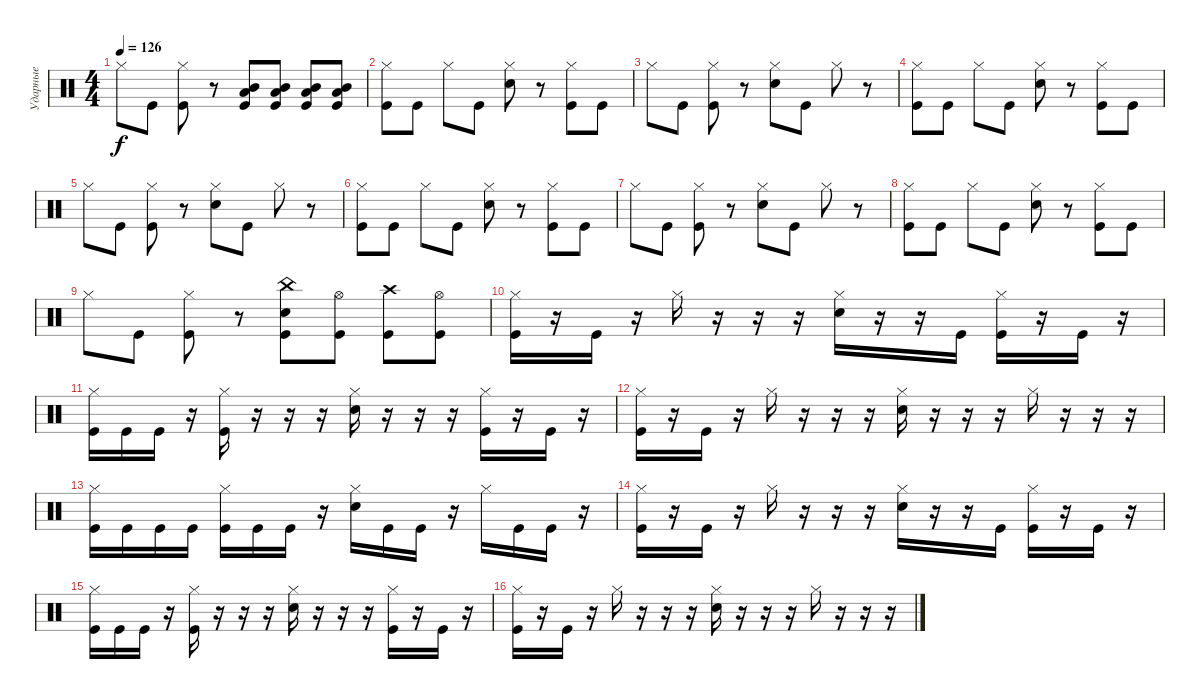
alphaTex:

\track ("Ударные" "Ударные") {instrument percussion}
\staff {score}
\articulation defaults
\ts (4 4)
\tempo 126
\clef neutral
\ks c "Hi-Hat (closed)".8{dy f} "Kick (hit)".8
("Hi-Hat (closed)" "Kick (hit)").8 r.8 ("Low Floor Tom (hit)" "Mid Tom (hit)" "Kick (hit)").8 ("Low Floor Tom (hit)" "Mid Tom (hit)" "Kick (hit)").8 ("Low Floor Tom (hit)" "Mid Tom (hit)" "Kick (hit)").8 ("Low Floor Tom (hit)" "Mid Tom (hit)" "Kick (hit)").8 |
("Hi-Hat (closed)" "Kick (hit)").8 "Kick (hit)".8 "Hi-Hat (closed)".8 "Kick (hit)".8 ("Hi-Hat (closed)" "Electric Snare (hit)").8 r.8 ("Hi-Hat (closed)" "Kick (hit)").8 "Kick (hit)".8 |
"Hi-Hat (closed)".8 "Kick (hit)".8 ("Hi-Hat (closed)" "Kick (hit)").8 r.8 ("Hi-Hat (closed)" "Electric Snare (hit)").8 "Kick (hit)".8 "Hi-Hat (closed)".8 r.8 |
("Hi-Hat (closed)" "Kick (hit)").8 "Kick (hit)".8 "Hi-Hat (closed)".8 "Kick (hit)".8 ("Hi-Hat (closed)" "Electric Snare (hit)").8 r.8 ("Hi-Hat (closed)" "Kick (hit)").8 "Kick (hit)".8 |
"Hi-Hat (closed)".8 "Kick (hit)".8 ("Hi-Hat (closed)" "Kick (hit)").8 r.8 ("Hi-Hat (closed)" "Electric Snare (hit)").8 "Kick (hit)".8 "Hi-Hat (closed)".8 r.8 |
("Hi-Hat (closed)" "Kick (hit)").8 "Kick (hit)".8 "Hi-Hat (closed)".8 "Kick (hit)".8 ("Hi-Hat (closed)" "Electric Snare (hit)").8 r.8 ("Hi-Hat (closed)" "Kick (hit)").8 "Kick (hit)".8 |
"Hi-Hat (closed)".8 "Kick (hit)".8 ("Hi-Hat (closed)" "Kick (hit)").8 r.8 ("Hi-Hat (closed)" "Electric Snare (hit)").8 "Kick (hit)".8 "Hi-Hat (closed)".8 r.8 |
("Hi-Hat (closed)" "Kick (hit)").8 "Kick (hit)".8 "Hi-Hat (closed)".8 "Kick (hit)".8 ("Hi-Hat (closed)" "Electric Snare (hit)").8 r.8 ("Hi-Hat (closed)" "Kick (hit)").8 "Kick (hit)".8 |
"Hi-Hat (closed)".8 "Kick (hit)".8 ("Hi-Hat (closed)" "Kick (hit)").8 r.8 ("China (hit)" "Electric Snare (hit)" "Kick (hit)").8 ("Hi-Hat (open)" "Kick (hit)").8 ("Crash high (hit)" "Kick (hit)").8 ("Hi-Hat (open)" "Kick (hit)").8 |
("Hi-Hat (closed)" "Kick (hit)").16 r.16 "Kick (hit)".16 r.16 "Hi-Hat (closed)".16 r.16 r.16 r.16 ("Hi-Hat (closed)" "Electric Snare (hit)").16 r.16 r.16 "Kick (hit)".16 ("Hi-Hat (closed)" "Kick (hit)").16 r.16 "Kick (hit)".16 r.16 |
("Hi-Hat (closed)" "Kick (hit)").16 "Kick (hit)".16 "Kick (hit)".16 r.16 ("Hi-Hat (closed)" "Kick (hit)").16 r.16 r.16 r.16 ("Hi-Hat (closed)" "Electric Snare (hit)").16 r.16 r.16 r.16 ("Hi-Hat (closed)" "Kick (hit)").16 r.16 "Kick (hit)".16 r.16 |
("Hi-Hat (closed)" "Kick (hit)").16 r.16 "Kick (hit)".16 r.16 "Hi-Hat (closed)".16 r.16 r.16 r.16 ("Hi-Hat (closed)" "Electric Snare (hit)").16 r.16 r.16 r.16 "Hi-Hat (closed)".16 r.16 r.16 r.16 |
("Hi-Hat (closed)" "Kick (hit)").16 "Kick (hit)".16 "Kick (hit)".16 "Kick (hit)".16 ("Hi-Hat (closed)" "Kick (hit)").16 "Kick (hit)".16 "Kick (hit)".16 r.16 ("Hi-Hat (closed)" "Electric Snare (hit)").16 "Kick (hit)".16 "Kick (hit)".16 r.16 "Hi-Hat (closed)".16 "Kick (hit)".16 "Kick (hit)".16 r.16 |
("Hi-Hat (closed)" "Kick (hit)").16 r.16 "Kick (hit)".16 r.16 "Hi-Hat (closed)".16 r.16 r.16 r.16 ("Hi-Hat (closed)" "Electric Snare (hit)").16 r.16 r.16 "Kick (hit)".16 ("Hi-Hat (closed)" "Kick (hit)").16 r.16 "Kick (hit)".16 r.16 |
("Hi-Hat (closed)" "Kick (hit)").16 "Kick (hit)".16 "Kick (hit)".16 r.16 ("Hi-Hat (closed)" "Kick (hit)").16 r.16 r.16 r.16 ("Hi-Hat (closed)" "Electric Snare (hit)").16 r.16 r.16 r.16 ("Hi-Hat (closed)" "Kick (hit)").16 r.16 "Kick (hit)".16 r.16 |
("Hi-Hat (closed)" "Kick (hit)").16 r.16 "Kick (hit)".16 r.16 "Hi-Hat (closed)".16 r.16 r.16 r.16 ("Hi-Hat (closed)" "Electric Snare (hit)").16 r.16 r.16 r.16 "Hi-Hat (closed)".16 r.16 r.16 r.16
